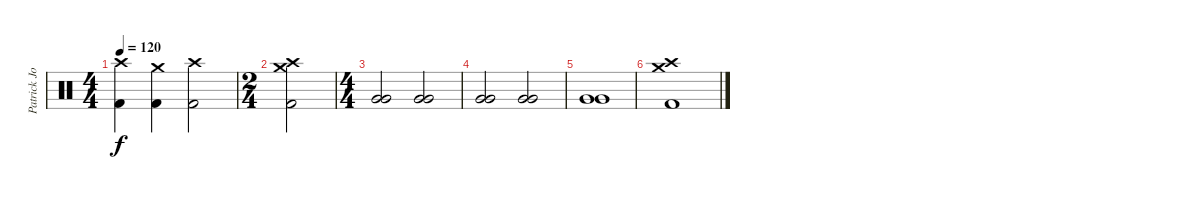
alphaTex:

\track ("Patrick Johansson" "Patrick Jo") {instrument percussion}
\staff {score}
\articulation defaults
\ts (4 4)
\tempo 120
\clef neutral
\ks c
("Crash high (hit)" "Kick (hit) 2").4{dy f} ("Crash medium (hit)" "Kick (hit) 2").4 ("Crash high (hit)" "Kick (hit) 2").2 |
\ts (2 4)
("Crash medium (hit)" "Crash high (hit)" "Kick (hit) 2").2 |
\ts (4 4)
("Very Low Tom (hit)" "Very Low Tom (hit)").2 ("Very Low Tom (hit)" "Very Low Tom (hit)").2 |
("Very Low Tom (hit)" "Very Low Tom (hit)").2 ("Very Low Tom (hit)" "Very Low Tom (hit)").2 |
("Very Low Tom (hit)" "Very Low Tom (hit)").1 |
("Crash medium (hit)" "Crash high (hit)" "Kick (hit) 2").1
